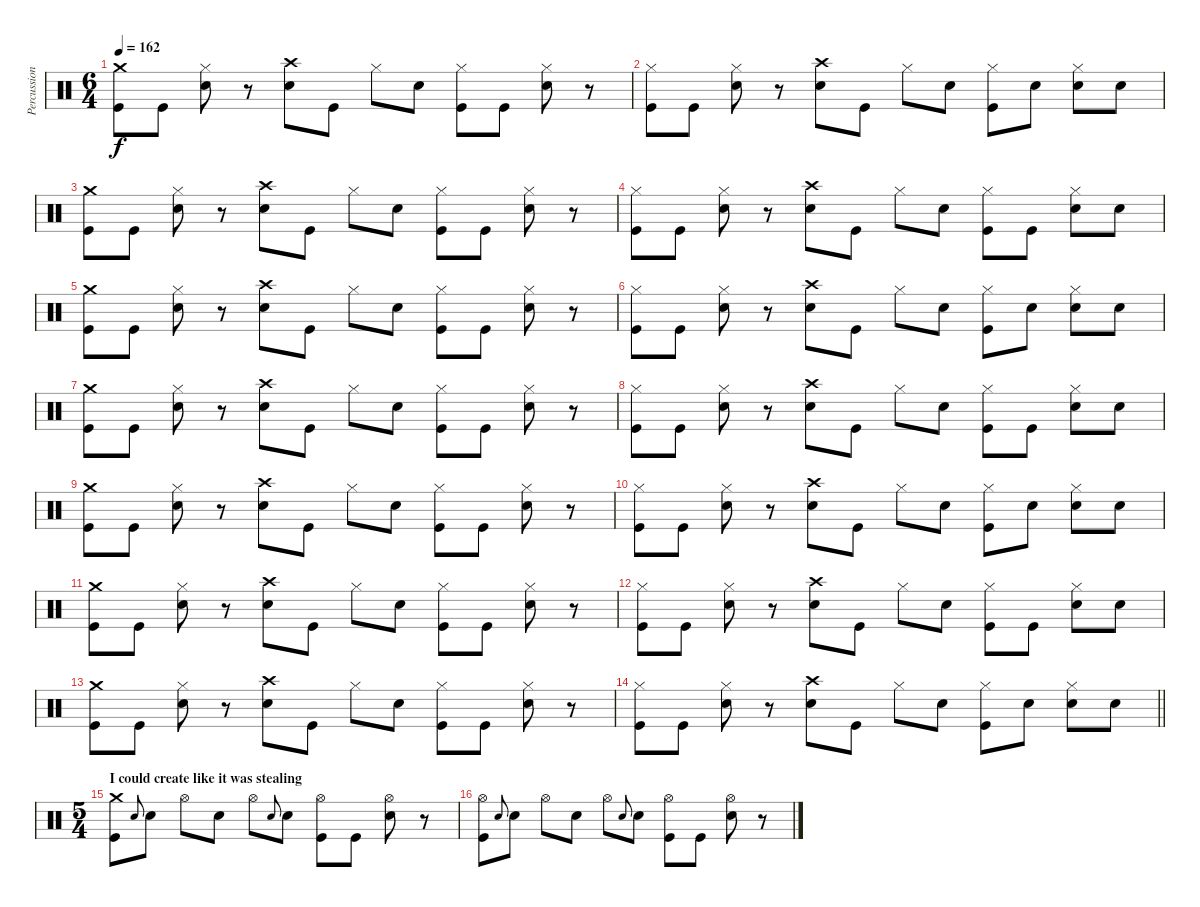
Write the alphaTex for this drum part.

\track ("Percussion" "Percussion") {instrument percussion}
\staff {score}
\articulation defaults
\ts (6 4)
\tempo 162
\clef neutral
\ks c
("Crash medium (hit)" "Kick (hit)").8{dy f} "Kick (hit)".8 ("Hi-Hat (closed)" "Snare (hit) 2").8 r.8 ("Crash high (hit)" "Snare (hit) 2").8 "Kick (hit)".8 "Hi-Hat (closed)".8 "Snare (hit) 2".8 ("Hi-Hat (closed)" "Kick (hit)").8 "Kick (hit)".8 ("Hi-Hat (closed)" "Snare (hit) 2").8 r.8 |
("Hi-Hat (closed)" "Kick (hit)").8 "Kick (hit)".8 ("Hi-Hat (closed)" "Snare (hit) 2").8 r.8 ("Crash high (hit)" "Snare (hit) 2").8 "Kick (hit)".8 "Hi-Hat (closed)".8 "Snare (hit) 2".8 ("Hi-Hat (closed)" "Kick (hit)").8 "Snare (hit) 2".8 ("Hi-Hat (closed)" "Snare (hit) 2").8 "Snare (hit) 2".8 |
("Crash medium (hit)" "Kick (hit)").8 "Kick (hit)".8 ("Hi-Hat (closed)" "Snare (hit) 2").8 r.8 ("Crash high (hit)" "Snare (hit) 2").8 "Kick (hit)".8 "Hi-Hat (closed)".8 "Snare (hit) 2".8 ("Hi-Hat (closed)" "Kick (hit)").8 "Kick (hit)".8 ("Hi-Hat (closed)" "Snare (hit) 2").8 r.8 |
("Hi-Hat (closed)" "Kick (hit)").8 "Kick (hit)".8 ("Hi-Hat (closed)" "Snare (hit) 2").8 r.8 ("Crash high (hit)" "Snare (hit) 2").8 "Kick (hit)".8 "Hi-Hat (closed)".8 "Snare (hit) 2".8 ("Hi-Hat (closed)" "Kick (hit)").8 "Kick (hit)".8 ("Hi-Hat (closed)" "Snare (hit) 2").8 "Snare (hit) 2".8 |
("Crash medium (hit)" "Kick (hit)").8 "Kick (hit)".8 ("Hi-Hat (closed)" "Snare (hit) 2").8 r.8 ("Crash high (hit)" "Snare (hit) 2").8 "Kick (hit)".8 "Hi-Hat (closed)".8 "Snare (hit) 2".8 ("Hi-Hat (closed)" "Kick (hit)").8 "Kick (hit)".8 ("Hi-Hat (closed)" "Snare (hit) 2").8 r.8 |
("Hi-Hat (closed)" "Kick (hit)").8 "Kick (hit)".8 ("Hi-Hat (closed)" "Snare (hit) 2").8 r.8 ("Crash high (hit)" "Snare (hit) 2").8 "Kick (hit)".8 "Hi-Hat (closed)".8 "Snare (hit) 2".8 ("Hi-Hat (closed)" "Kick (hit)").8 "Snare (hit) 2".8 ("Hi-Hat (closed)" "Snare (hit) 2").8 "Snare (hit) 2".8 |
("Crash medium (hit)" "Kick (hit)").8 "Kick (hit)".8 ("Hi-Hat (closed)" "Snare (hit) 2").8 r.8 ("Crash high (hit)" "Snare (hit) 2").8 "Kick (hit)".8 "Hi-Hat (closed)".8 "Snare (hit) 2".8 ("Hi-Hat (closed)" "Kick (hit)").8 "Kick (hit)".8 ("Hi-Hat (closed)" "Snare (hit) 2").8 r.8 |
("Hi-Hat (closed)" "Kick (hit)").8 "Kick (hit)".8 ("Hi-Hat (closed)" "Snare (hit) 2").8 r.8 ("Crash high (hit)" "Snare (hit) 2").8 "Kick (hit)".8 "Hi-Hat (closed)".8 "Snare (hit) 2".8 ("Hi-Hat (closed)" "Kick (hit)").8 "Kick (hit)".8 ("Hi-Hat (closed)" "Snare (hit) 2").8 "Snare (hit) 2".8 |
("Crash medium (hit)" "Kick (hit)").8 "Kick (hit)".8 ("Hi-Hat (closed)" "Snare (hit) 2").8 r.8 ("Crash high (hit)" "Snare (hit) 2").8 "Kick (hit)".8 "Hi-Hat (closed)".8 "Snare (hit) 2".8 ("Hi-Hat (closed)" "Kick (hit)").8 "Kick (hit)".8 ("Hi-Hat (closed)" "Snare (hit) 2").8 r.8 |
("Hi-Hat (closed)" "Kick (hit)").8 "Kick (hit)".8 ("Hi-Hat (closed)" "Snare (hit) 2").8 r.8 ("Crash high (hit)" "Snare (hit) 2").8 "Kick (hit)".8 "Hi-Hat (closed)".8 "Snare (hit) 2".8 ("Hi-Hat (closed)" "Kick (hit)").8 "Snare (hit) 2".8 ("Hi-Hat (closed)" "Snare (hit) 2").8 "Snare (hit) 2".8 |
("Crash medium (hit)" "Kick (hit)").8 "Kick (hit)".8 ("Hi-Hat (closed)" "Snare (hit) 2").8 r.8 ("Crash high (hit)" "Snare (hit) 2").8 "Kick (hit)".8 "Hi-Hat (closed)".8 "Snare (hit) 2".8 ("Hi-Hat (closed)" "Kick (hit)").8 "Kick (hit)".8 ("Hi-Hat (closed)" "Snare (hit) 2").8 r.8 |
("Hi-Hat (closed)" "Kick (hit)").8 "Kick (hit)".8 ("Hi-Hat (closed)" "Snare (hit) 2").8 r.8 ("Crash high (hit)" "Snare (hit) 2").8 "Kick (hit)".8 "Hi-Hat (closed)".8 "Snare (hit) 2".8 ("Hi-Hat (closed)" "Kick (hit)").8 "Kick (hit)".8 ("Hi-Hat (closed)" "Snare (hit) 2").8 "Snare (hit) 2".8 |
("Crash medium (hit)" "Kick (hit)").8 "Kick (hit)".8 ("Hi-Hat (closed)" "Snare (hit) 2").8 r.8 ("Crash high (hit)" "Snare (hit) 2").8 "Kick (hit)".8 "Hi-Hat (closed)".8 "Snare (hit) 2".8 ("Hi-Hat (closed)" "Kick (hit)").8 "Kick (hit)".8 ("Hi-Hat (closed)" "Snare (hit) 2").8 r.8 |
\barLineRight lightlight
("Hi-Hat (closed)" "Kick (hit)").8 "Kick (hit)".8 ("Hi-Hat (closed)" "Snare (hit) 2").8 r.8 ("Crash high (hit)" "Snare (hit) 2").8 "Kick (hit)".8 "Hi-Hat (closed)".8 "Snare (hit) 2".8 ("Hi-Hat (closed)" "Kick (hit)").8 "Snare (hit) 2".8 ("Hi-Hat (closed)" "Snare (hit) 2").8 "Snare (hit) 2".8 |
\ts (5 4)
\section ("" "I could create like it was stealing")
("Crash medium (hit)" "Kick (hit)").8 "Snare (hit) 2".8{gr onbeat} "Snare (hit) 2".8 "Hi-Hat (open)".8 "Snare (hit) 2".8 "Hi-Hat (open)".8 "Snare (hit) 2".8{gr onbeat} "Snare (hit) 2".8 ("Hi-Hat (open)" "Kick (hit)").8 "Kick (hit)".8 ("Hi-Hat (open)" "Snare (hit) 2").8 r.8 |
("Hi-Hat (open)" "Kick (hit)").8 "Snare (hit) 2".8{gr onbeat} "Snare (hit) 2".8 "Hi-Hat (open)".8 "Snare (hit) 2".8 "Hi-Hat (open)".8 "Snare (hit) 2".8{gr onbeat} "Snare (hit) 2".8 ("Hi-Hat (open)" "Kick (hit)").8 "Kick (hit)".8 ("Hi-Hat (open)" "Snare (hit) 2").8 r.8
